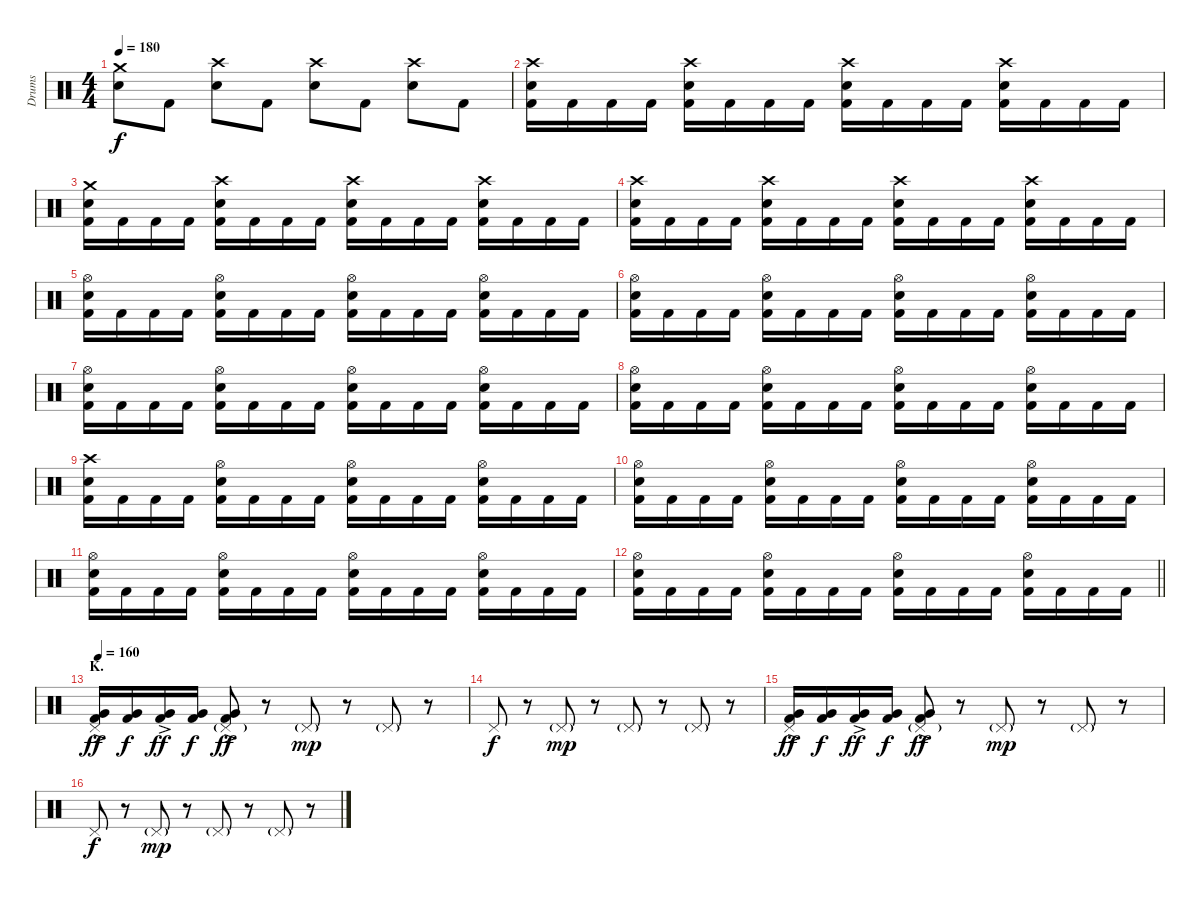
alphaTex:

\track ("Drums" "Drums") {instrument percussion}
\staff {score}
\articulation defaults
\ts (4 4)
\tempo 180
\clef neutral
\ks c
("Crash medium (hit)" "Electric Snare (hit)").8{dy f} "Kick (hit) 2".8 ("Crash high (hit)" "Electric Snare (hit)").8 "Kick (hit) 2".8 ("Crash high (hit)" "Electric Snare (hit)").8 "Kick (hit) 2".8 ("Crash high (hit)" "Electric Snare (hit)").8 "Kick (hit) 2".8 |
("Crash high (hit)" "Electric Snare (hit)" "Kick (hit) 2").16 "Kick (hit) 2".16 "Kick (hit) 2".16 "Kick (hit) 2".16 ("Crash high (hit)" "Electric Snare (hit)" "Kick (hit) 2").16 "Kick (hit) 2".16 "Kick (hit) 2".16 "Kick (hit) 2".16 ("Crash high (hit)" "Electric Snare (hit)" "Kick (hit) 2").16 "Kick (hit) 2".16 "Kick (hit) 2".16 "Kick (hit) 2".16 ("Crash high (hit)" "Electric Snare (hit)" "Kick (hit) 2").16 "Kick (hit) 2".16 "Kick (hit) 2".16 "Kick (hit) 2".16 |
("Crash medium (hit)" "Electric Snare (hit)" "Kick (hit) 2").16 "Kick (hit) 2".16 "Kick (hit) 2".16 "Kick (hit) 2".16 ("Crash high (hit)" "Electric Snare (hit)" "Kick (hit) 2").16 "Kick (hit) 2".16 "Kick (hit) 2".16 "Kick (hit) 2".16 ("Crash high (hit)" "Electric Snare (hit)" "Kick (hit) 2").16 "Kick (hit) 2".16 "Kick (hit) 2".16 "Kick (hit) 2".16 ("Crash high (hit)" "Electric Snare (hit)" "Kick (hit) 2").16 "Kick (hit) 2".16 "Kick (hit) 2".16 "Kick (hit) 2".16 |
("Crash high (hit)" "Electric Snare (hit)" "Kick (hit) 2").16 "Kick (hit) 2".16 "Kick (hit) 2".16 "Kick (hit) 2".16 ("Crash high (hit)" "Electric Snare (hit)" "Kick (hit) 2").16 "Kick (hit) 2".16 "Kick (hit) 2".16 "Kick (hit) 2".16 ("Crash high (hit)" "Electric Snare (hit)" "Kick (hit) 2").16 "Kick (hit) 2".16 "Kick (hit) 2".16 "Kick (hit) 2".16 ("Crash high (hit)" "Electric Snare (hit)" "Kick (hit) 2").16 "Kick (hit) 2".16 "Kick (hit) 2".16 "Kick (hit) 2".16 |
("Hi-Hat (open)" "Electric Snare (hit)" "Kick (hit) 2").16 "Kick (hit) 2".16 "Kick (hit) 2".16 "Kick (hit) 2".16 ("Hi-Hat (open)" "Electric Snare (hit)" "Kick (hit) 2").16 "Kick (hit) 2".16 "Kick (hit) 2".16 "Kick (hit) 2".16 ("Hi-Hat (open)" "Electric Snare (hit)" "Kick (hit) 2").16 "Kick (hit) 2".16 "Kick (hit) 2".16 "Kick (hit) 2".16 ("Hi-Hat (open)" "Electric Snare (hit)" "Kick (hit) 2").16 "Kick (hit) 2".16 "Kick (hit) 2".16 "Kick (hit) 2".16 |
("Hi-Hat (open)" "Electric Snare (hit)" "Kick (hit) 2").16 "Kick (hit) 2".16 "Kick (hit) 2".16 "Kick (hit) 2".16 ("Hi-Hat (open)" "Electric Snare (hit)" "Kick (hit) 2").16 "Kick (hit) 2".16 "Kick (hit) 2".16 "Kick (hit) 2".16 ("Hi-Hat (open)" "Electric Snare (hit)" "Kick (hit) 2").16 "Kick (hit) 2".16 "Kick (hit) 2".16 "Kick (hit) 2".16 ("Hi-Hat (open)" "Electric Snare (hit)" "Kick (hit) 2").16 "Kick (hit) 2".16 "Kick (hit) 2".16 "Kick (hit) 2".16 |
("Hi-Hat (open)" "Electric Snare (hit)" "Kick (hit) 2").16 "Kick (hit) 2".16 "Kick (hit) 2".16 "Kick (hit) 2".16 ("Hi-Hat (open)" "Electric Snare (hit)" "Kick (hit) 2").16 "Kick (hit) 2".16 "Kick (hit) 2".16 "Kick (hit) 2".16 ("Hi-Hat (open)" "Electric Snare (hit)" "Kick (hit) 2").16 "Kick (hit) 2".16 "Kick (hit) 2".16 "Kick (hit) 2".16 ("Hi-Hat (open)" "Electric Snare (hit)" "Kick (hit) 2").16 "Kick (hit) 2".16 "Kick (hit) 2".16 "Kick (hit) 2".16 |
("Hi-Hat (open)" "Electric Snare (hit)" "Kick (hit) 2").16 "Kick (hit) 2".16 "Kick (hit) 2".16 "Kick (hit) 2".16 ("Hi-Hat (open)" "Electric Snare (hit)" "Kick (hit) 2").16 "Kick (hit) 2".16 "Kick (hit) 2".16 "Kick (hit) 2".16 ("Hi-Hat (open)" "Electric Snare (hit)" "Kick (hit) 2").16 "Kick (hit) 2".16 "Kick (hit) 2".16 "Kick (hit) 2".16 ("Hi-Hat (open)" "Electric Snare (hit)" "Kick (hit) 2").16 "Kick (hit) 2".16 "Kick (hit) 2".16 "Kick (hit) 2".16 |
("Crash high (hit)" "Electric Snare (hit)" "Kick (hit) 2").16 "Kick (hit) 2".16 "Kick (hit) 2".16 "Kick (hit) 2".16 ("Hi-Hat (open)" "Electric Snare (hit)" "Kick (hit) 2").16 "Kick (hit) 2".16 "Kick (hit) 2".16 "Kick (hit) 2".16 ("Hi-Hat (open)" "Electric Snare (hit)" "Kick (hit) 2").16 "Kick (hit) 2".16 "Kick (hit) 2".16 "Kick (hit) 2".16 ("Hi-Hat (open)" "Electric Snare (hit)" "Kick (hit) 2").16 "Kick (hit) 2".16 "Kick (hit) 2".16 "Kick (hit) 2".16 |
("Hi-Hat (open)" "Electric Snare (hit)" "Kick (hit) 2").16 "Kick (hit) 2".16 "Kick (hit) 2".16 "Kick (hit) 2".16 ("Hi-Hat (open)" "Electric Snare (hit)" "Kick (hit) 2").16 "Kick (hit) 2".16 "Kick (hit) 2".16 "Kick (hit) 2".16 ("Hi-Hat (open)" "Electric Snare (hit)" "Kick (hit) 2").16 "Kick (hit) 2".16 "Kick (hit) 2".16 "Kick (hit) 2".16 ("Hi-Hat (open)" "Electric Snare (hit)" "Kick (hit) 2").16 "Kick (hit) 2".16 "Kick (hit) 2".16 "Kick (hit) 2".16 |
("Hi-Hat (open)" "Electric Snare (hit)" "Kick (hit) 2").16 "Kick (hit) 2".16 "Kick (hit) 2".16 "Kick (hit) 2".16 ("Hi-Hat (open)" "Electric Snare (hit)" "Kick (hit) 2").16 "Kick (hit) 2".16 "Kick (hit) 2".16 "Kick (hit) 2".16 ("Hi-Hat (open)" "Electric Snare (hit)" "Kick (hit) 2").16 "Kick (hit) 2".16 "Kick (hit) 2".16 "Kick (hit) 2".16 ("Hi-Hat (open)" "Electric Snare (hit)" "Kick (hit) 2").16 "Kick (hit) 2".16 "Kick (hit) 2".16 "Kick (hit) 2".16 |
\barLineRight lightlight
("Hi-Hat (open)" "Electric Snare (hit)" "Kick (hit) 2").16 "Kick (hit) 2".16 "Kick (hit) 2".16 "Kick (hit) 2".16 ("Hi-Hat (open)" "Electric Snare (hit)" "Kick (hit) 2").16 "Kick (hit) 2".16 "Kick (hit) 2".16 "Kick (hit) 2".16 ("Hi-Hat (open)" "Electric Snare (hit)" "Kick (hit) 2").16 "Kick (hit) 2".16 "Kick (hit) 2".16 "Kick (hit) 2".16 ("Hi-Hat (open)" "Electric Snare (hit)" "Kick (hit) 2").16 "Kick (hit) 2".16 "Kick (hit) 2".16 "Kick (hit) 2".16 |
\section ("" "K.")
\tempo 160
("Pedal Hi-Hat (hit)" "Very Low Tom (hit)"{ac} "Kick (hit) 2").16{dy ff} ("Very Low Tom (hit)" "Kick (hit) 2").16{dy f} ("Very Low Tom (hit)"{ac} "Kick (hit) 2").16{dy ff} ("Very Low Tom (hit)" "Kick (hit) 2").16{dy f} ("Pedal Hi-Hat (hit)"{g} "Very Low Tom (hit)"{ac} "Kick (hit) 2").8{dy ff} r.8 "Pedal Hi-Hat (hit)"{g}.8{dy mp} r.8 "Pedal Hi-Hat (hit)"{g}.8 r.8 |
"Pedal Hi-Hat (hit)".8{dy f} r.8 "Pedal Hi-Hat (hit)"{g}.8{dy mp} r.8 "Pedal Hi-Hat (hit)"{g}.8 r.8 "Pedal Hi-Hat (hit)"{g}.8 r.8 |
("Pedal Hi-Hat (hit)" "Very Low Tom (hit)"{ac} "Kick (hit) 2").16{dy ff} ("Very Low Tom (hit)" "Kick (hit) 2").16{dy f} ("Very Low Tom (hit)"{ac} "Kick (hit) 2").16{dy ff} ("Very Low Tom (hit)" "Kick (hit) 2").16{dy f} ("Pedal Hi-Hat (hit)"{g} "Very Low Tom (hit)"{ac} "Kick (hit) 2").8{dy ff} r.8 "Pedal Hi-Hat (hit)"{g}.8{dy mp} r.8 "Pedal Hi-Hat (hit)"{g}.8 r.8 |
"Pedal Hi-Hat (hit)".8{dy f} r.8 "Pedal Hi-Hat (hit)"{g}.8{dy mp} r.8 "Pedal Hi-Hat (hit)"{g}.8 r.8 "Pedal Hi-Hat (hit)"{g}.8 r.8
